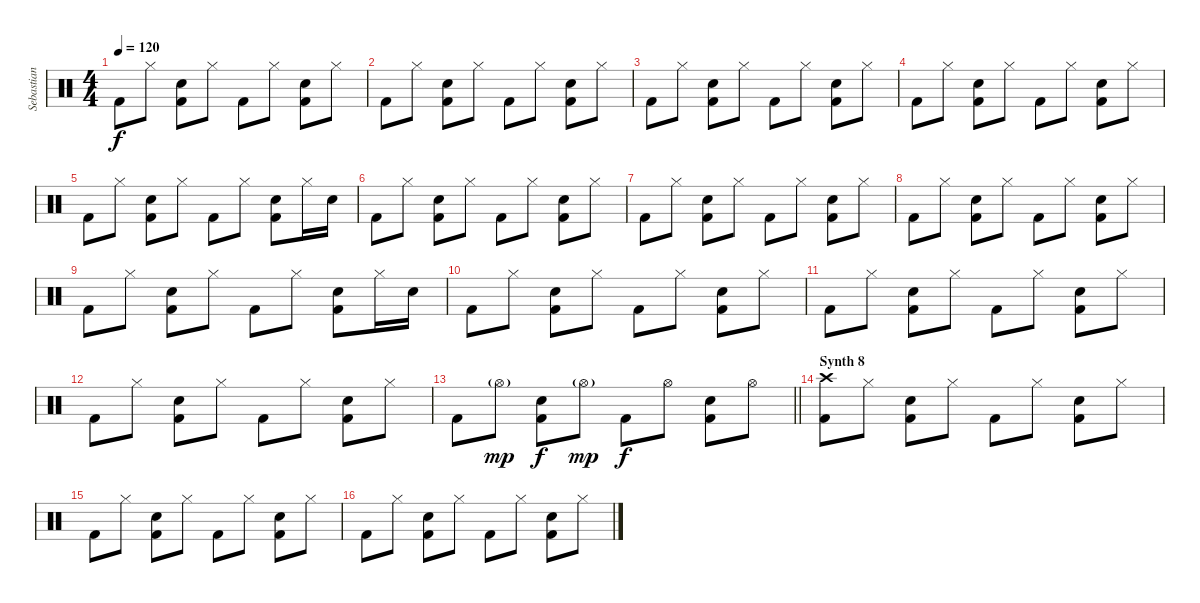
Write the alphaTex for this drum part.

\track ("Sebastian (Drums)" "Sebastian ") {instrument percussion}
\staff {score}
\articulation defaults
\ts (4 4)
\tempo 120
\clef neutral
\ks c "Kick (hit) 2".8{dy f} "Hi-Hat (closed)".8
("Electric Snare (hit)" "Kick (hit) 2").8 "Hi-Hat (closed)".8 "Kick (hit) 2".8 "Hi-Hat (closed)".8 ("Electric Snare (hit)" "Kick (hit) 2").8 "Hi-Hat (closed)".8 |
"Kick (hit) 2".8 "Hi-Hat (closed)".8 ("Electric Snare (hit)" "Kick (hit) 2").8 "Hi-Hat (closed)".8 "Kick (hit) 2".8 "Hi-Hat (closed)".8 ("Electric Snare (hit)" "Kick (hit) 2").8 "Hi-Hat (closed)".8 |
"Kick (hit) 2".8 "Hi-Hat (closed)".8 ("Electric Snare (hit)" "Kick (hit) 2").8 "Hi-Hat (closed)".8 "Kick (hit) 2".8 "Hi-Hat (closed)".8 ("Electric Snare (hit)" "Kick (hit) 2").8 "Hi-Hat (closed)".8 |
"Kick (hit) 2".8 "Hi-Hat (closed)".8 ("Electric Snare (hit)" "Kick (hit) 2").8 "Hi-Hat (closed)".8 "Kick (hit) 2".8 "Hi-Hat (closed)".8 ("Electric Snare (hit)" "Kick (hit) 2").8 "Hi-Hat (closed)".8 |
"Kick (hit) 2".8 "Hi-Hat (closed)".8 ("Electric Snare (hit)" "Kick (hit) 2").8 "Hi-Hat (closed)".8 "Kick (hit) 2".8 "Hi-Hat (closed)".8 ("Electric Snare (hit)" "Kick (hit) 2").8 "Hi-Hat (closed)".16 "Electric Snare (hit)".16 |
"Kick (hit) 2".8 "Hi-Hat (closed)".8 ("Electric Snare (hit)" "Kick (hit) 2").8 "Hi-Hat (closed)".8 "Kick (hit) 2".8 "Hi-Hat (closed)".8 ("Electric Snare (hit)" "Kick (hit) 2").8 "Hi-Hat (closed)".8 |
"Kick (hit) 2".8 "Hi-Hat (closed)".8 ("Electric Snare (hit)" "Kick (hit) 2").8 "Hi-Hat (closed)".8 "Kick (hit) 2".8 "Hi-Hat (closed)".8 ("Electric Snare (hit)" "Kick (hit) 2").8 "Hi-Hat (closed)".8 |
"Kick (hit) 2".8 "Hi-Hat (closed)".8 ("Electric Snare (hit)" "Kick (hit) 2").8 "Hi-Hat (closed)".8 "Kick (hit) 2".8 "Hi-Hat (closed)".8 ("Electric Snare (hit)" "Kick (hit) 2").8 "Hi-Hat (closed)".8 |
"Kick (hit) 2".8 "Hi-Hat (closed)".8 ("Electric Snare (hit)" "Kick (hit) 2").8 "Hi-Hat (closed)".8 "Kick (hit) 2".8 "Hi-Hat (closed)".8 ("Electric Snare (hit)" "Kick (hit) 2").8 "Hi-Hat (closed)".16 "Electric Snare (hit)".16 |
"Kick (hit) 2".8 "Hi-Hat (closed)".8 ("Electric Snare (hit)" "Kick (hit) 2").8 "Hi-Hat (closed)".8 "Kick (hit) 2".8 "Hi-Hat (closed)".8 ("Electric Snare (hit)" "Kick (hit) 2").8 "Hi-Hat (closed)".8 |
"Kick (hit) 2".8 "Hi-Hat (closed)".8 ("Electric Snare (hit)" "Kick (hit) 2").8 "Hi-Hat (closed)".8 "Kick (hit) 2".8 "Hi-Hat (closed)".8 ("Electric Snare (hit)" "Kick (hit) 2").8 "Hi-Hat (closed)".8 |
"Kick (hit) 2".8 "Hi-Hat (closed)".8 ("Electric Snare (hit)" "Kick (hit) 2").8 "Hi-Hat (closed)".8 "Kick (hit) 2".8 "Hi-Hat (closed)".8 ("Electric Snare (hit)" "Kick (hit) 2").8 "Hi-Hat (closed)".8 |
\barLineRight lightlight "Kick (hit) 2".8 "Hi-Hat (open)"{g}.8{dy mp}
("Electric Snare (hit)" "Kick (hit) 2").8{dy f} "Hi-Hat (open)"{g}.8{dy mp} "Kick (hit) 2".8{dy f} "Hi-Hat (open)".8 ("Electric Snare (hit)" "Kick (hit) 2").8 "Hi-Hat (open)".8 |
\section ("" "Synth 8")
("Crash high (hit)" "Kick (hit) 2").8 "Hi-Hat (closed)".8 ("Electric Snare (hit)" "Kick (hit) 2").8 "Hi-Hat (closed)".8 "Kick (hit) 2".8 "Hi-Hat (closed)".8 ("Electric Snare (hit)" "Kick (hit) 2").8 "Hi-Hat (closed)".8 |
"Kick (hit) 2".8 "Hi-Hat (closed)".8 ("Electric Snare (hit)" "Kick (hit) 2").8 "Hi-Hat (closed)".8 "Kick (hit) 2".8 "Hi-Hat (closed)".8 ("Electric Snare (hit)" "Kick (hit) 2").8 "Hi-Hat (closed)".8 |
"Kick (hit) 2".8 "Hi-Hat (closed)".8 ("Electric Snare (hit)" "Kick (hit) 2").8 "Hi-Hat (closed)".8 "Kick (hit) 2".8 "Hi-Hat (closed)".8 ("Electric Snare (hit)" "Kick (hit) 2").8 "Hi-Hat (closed)".8
